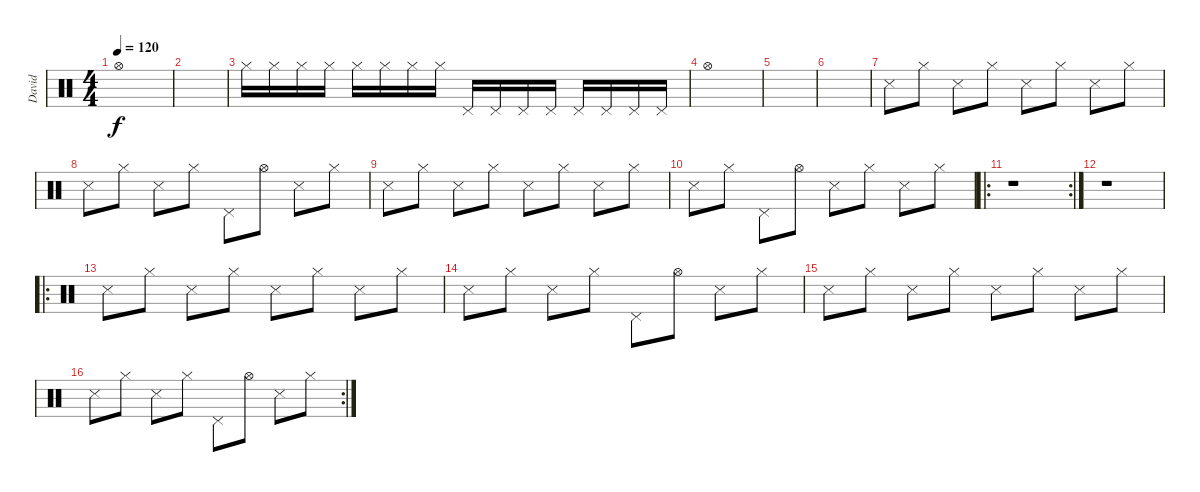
\track ("David" "David") {instrument percussion}
\staff {score}
\articulation defaults
\ts (4 4)
\tempo 120
\clef neutral
\ks c "Hi-Hat (open)".1{dy f}
|
|
"Hi-Hat (closed)".16 "Hi-Hat (closed)".16 "Hi-Hat (closed)".16 "Hi-Hat (closed)".16 "Hi-Hat (closed)".16 "Hi-Hat (closed)".16 "Hi-Hat (closed)".16 "Hi-Hat (closed)".16 "Pedal Hi-Hat (hit)".16 "Pedal Hi-Hat (hit)".16 "Pedal Hi-Hat (hit)".16 "Pedal Hi-Hat (hit)".16 "Pedal Hi-Hat (hit)".16 "Pedal Hi-Hat (hit)".16 "Pedal Hi-Hat (hit)".16 "Pedal Hi-Hat (hit)".16 |
"Hi-Hat (open)".1 |
|
|
"Snare (side stick) 3".8 "Hi-Hat (closed)".8 "Snare (side stick) 3".8 "Hi-Hat (closed)".8 "Snare (side stick) 3".8 "Hi-Hat (closed)".8 "Snare (side stick) 3".8 "Hi-Hat (closed)".8 |
"Snare (side stick) 3".8 "Hi-Hat (closed)".8 "Snare (side stick) 3".8 "Hi-Hat (closed)".8 "Pedal Hi-Hat (hit)".8 "Hi-Hat (open)".8 "Snare (side stick) 3".8 "Hi-Hat (closed)".8 |
"Snare (side stick) 3".8 "Hi-Hat (closed)".8 "Snare (side stick) 3".8 "Hi-Hat (closed)".8 "Snare (side stick) 3".8 "Hi-Hat (closed)".8 "Snare (side stick) 3".8 "Hi-Hat (closed)".8 |
"Snare (side stick) 3".8 "Hi-Hat (closed)".8 "Pedal Hi-Hat (hit)".8 "Hi-Hat (open)".8 "Snare (side stick) 3".8 "Hi-Hat (closed)".8 "Snare (side stick) 3".8 "Hi-Hat (closed)".8 |
\ro
\rc 2
r.1 |
r.1 |
\ro "Snare (side stick) 3".8 "Hi-Hat (closed)".8 "Snare (side stick) 3".8 "Hi-Hat (closed)".8 "Snare (side stick) 3".8 "Hi-Hat (closed)".8 "Snare (side stick) 3".8 "Hi-Hat (closed)".8
|
"Snare (side stick) 3".8 "Hi-Hat (closed)".8 "Snare (side stick) 3".8 "Hi-Hat (closed)".8 "Pedal Hi-Hat (hit)".8 "Hi-Hat (open)".8 "Snare (side stick) 3".8 "Hi-Hat (closed)".8 |
"Snare (side stick) 3".8 "Hi-Hat (closed)".8 "Snare (side stick) 3".8 "Hi-Hat (closed)".8 "Snare (side stick) 3".8 "Hi-Hat (closed)".8 "Snare (side stick) 3".8 "Hi-Hat (closed)".8 |
\rc 2 "Snare (side stick) 3".8 "Hi-Hat (closed)".8 "Snare (side stick) 3".8 "Hi-Hat (closed)".8 "Pedal Hi-Hat (hit)".8 "Hi-Hat (open)".8 "Snare (side stick) 3".8 "Hi-Hat (closed)".8
